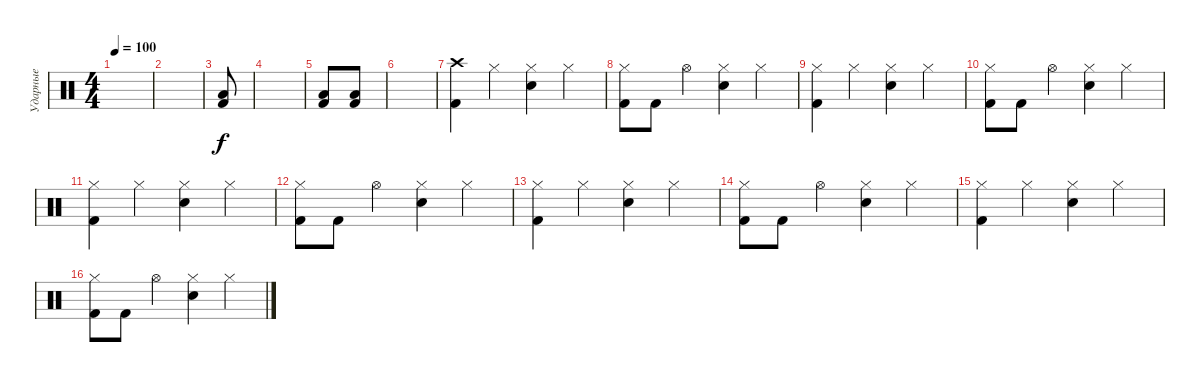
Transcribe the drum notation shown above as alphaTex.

\track ("Ударные" "Ударные") {instrument percussion}
\staff {score}
\articulation defaults
\ts (4 4)
\tempo 100
\clef neutral
\ks c
|
|
("Low Floor Tom (hit)" "Kick (hit) 2").8 |
|
("Low Floor Tom (hit)" "Kick (hit) 2").8 ("Low Floor Tom (hit)" "Kick (hit) 2").8 |
|
("Crash high (hit)" "Kick (hit) 2").4 "Hi-Hat (closed)".4 ("Hi-Hat (closed)" "Snare (hit) 2").4 "Hi-Hat (closed)".4 |
("Hi-Hat (closed)" "Kick (hit) 2").8 "Kick (hit) 2".8 "Hi-Hat (open)".4 ("Hi-Hat (closed)" "Snare (hit) 2").4 "Hi-Hat (closed)".4 |
("Hi-Hat (closed)" "Kick (hit) 2").4 "Hi-Hat (closed)".4 ("Hi-Hat (closed)" "Snare (hit) 2").4 "Hi-Hat (closed)".4 |
("Hi-Hat (closed)" "Kick (hit) 2").8 "Kick (hit) 2".8 "Hi-Hat (open)".4 ("Hi-Hat (closed)" "Snare (hit) 2").4 "Hi-Hat (closed)".4 |
("Hi-Hat (closed)" "Kick (hit) 2").4 "Hi-Hat (closed)".4 ("Hi-Hat (closed)" "Snare (hit) 2").4 "Hi-Hat (closed)".4 |
("Hi-Hat (closed)" "Kick (hit) 2").8 "Kick (hit) 2".8 "Hi-Hat (open)".4 ("Hi-Hat (closed)" "Snare (hit) 2").4 "Hi-Hat (closed)".4 |
("Hi-Hat (closed)" "Kick (hit) 2").4 "Hi-Hat (closed)".4 ("Hi-Hat (closed)" "Snare (hit) 2").4 "Hi-Hat (closed)".4 |
("Hi-Hat (closed)" "Kick (hit) 2").8 "Kick (hit) 2".8 "Hi-Hat (open)".4 ("Hi-Hat (closed)" "Snare (hit) 2").4 "Hi-Hat (closed)".4 |
("Hi-Hat (closed)" "Kick (hit) 2").4 "Hi-Hat (closed)".4 ("Hi-Hat (closed)" "Snare (hit) 2").4 "Hi-Hat (closed)".4 |
("Hi-Hat (closed)" "Kick (hit) 2").8 "Kick (hit) 2".8 "Hi-Hat (open)".4 ("Hi-Hat (closed)" "Snare (hit) 2").4 "Hi-Hat (closed)".4
